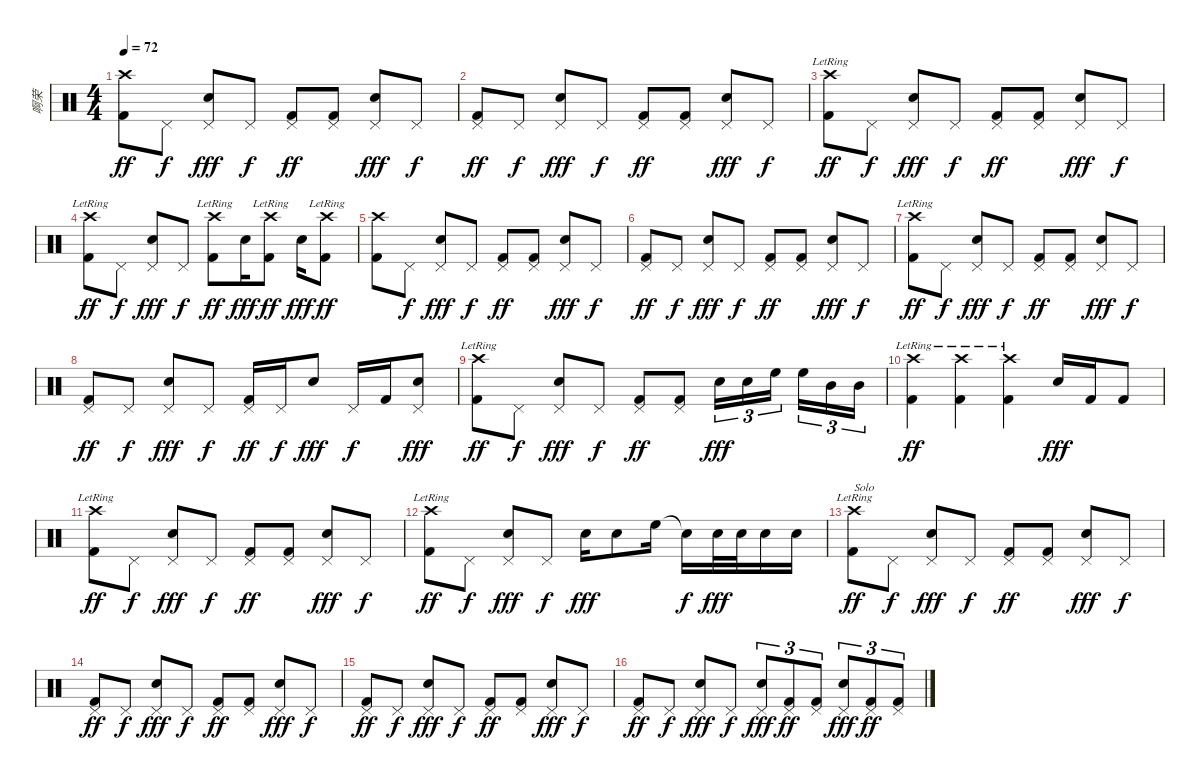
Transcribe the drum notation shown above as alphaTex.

\track ("啊荣" "啊荣") {instrument percussion}
\staff {score}
\articulation defaults
\ts (4 4)
\tempo 72
\clef neutral
\ks c
("Crash high (hit)" "Kick (hit) 2").8{dy ff} "Pedal Hi-Hat (hit)".8{dy f} ("Pedal Hi-Hat (hit)" "Electric Snare (hit)").8{dy fff} "Pedal Hi-Hat (hit)".8{dy f} ("Pedal Hi-Hat (hit)" "Kick (hit) 2").8{dy ff} ("Pedal Hi-Hat (hit)" "Kick (hit) 2").8 ("Pedal Hi-Hat (hit)" "Electric Snare (hit)").8{dy fff} "Pedal Hi-Hat (hit)".8{dy f} |
("Pedal Hi-Hat (hit)" "Kick (hit) 2").8{dy ff} "Pedal Hi-Hat (hit)".8{dy f} ("Pedal Hi-Hat (hit)" "Electric Snare (hit)").8{dy fff} "Pedal Hi-Hat (hit)".8{dy f} ("Pedal Hi-Hat (hit)" "Kick (hit) 2").8{dy ff} ("Pedal Hi-Hat (hit)" "Kick (hit) 2").8 ("Pedal Hi-Hat (hit)" "Electric Snare (hit)").8{dy fff} "Pedal Hi-Hat (hit)".8{dy f} |
("Crash high (hit)"{lr} "Kick (hit) 2").8{dy ff} "Pedal Hi-Hat (hit)".8{dy f} ("Pedal Hi-Hat (hit)" "Electric Snare (hit)").8{dy fff} "Pedal Hi-Hat (hit)".8{dy f} ("Pedal Hi-Hat (hit)" "Kick (hit) 2").8{dy ff} ("Pedal Hi-Hat (hit)" "Kick (hit) 2").8 ("Pedal Hi-Hat (hit)" "Electric Snare (hit)").8{dy fff} "Pedal Hi-Hat (hit)".8{dy f} |
("Crash high (hit)"{lr} "Kick (hit) 2").8{dy ff} "Pedal Hi-Hat (hit)".8{dy f} ("Pedal Hi-Hat (hit)" "Electric Snare (hit)").8{dy fff} "Pedal Hi-Hat (hit)".8{dy f} ("Crash high (hit)"{lr} "Kick (hit) 2").8{dy ff} "Electric Snare (hit)".16{dy fff} ("Crash high (hit)"{lr} "Kick (hit) 2").8{dy ff} "Electric Snare (hit)".16{dy fff} ("Crash high (hit)"{lr} "Kick (hit) 2").8{dy ff} |
("Crash high (hit)" "Kick (hit) 2").8 "Pedal Hi-Hat (hit)".8{dy f} ("Pedal Hi-Hat (hit)" "Electric Snare (hit)").8{dy fff} "Pedal Hi-Hat (hit)".8{dy f} ("Pedal Hi-Hat (hit)" "Kick (hit) 2").8{dy ff} ("Pedal Hi-Hat (hit)" "Kick (hit) 2").8 ("Pedal Hi-Hat (hit)" "Electric Snare (hit)").8{dy fff} "Pedal Hi-Hat (hit)".8{dy f} |
("Pedal Hi-Hat (hit)" "Kick (hit) 2").8{dy ff} "Pedal Hi-Hat (hit)".8{dy f} ("Pedal Hi-Hat (hit)" "Electric Snare (hit)").8{dy fff} "Pedal Hi-Hat (hit)".8{dy f} ("Pedal Hi-Hat (hit)" "Kick (hit) 2").8{dy ff} ("Pedal Hi-Hat (hit)" "Kick (hit) 2").8 ("Pedal Hi-Hat (hit)" "Electric Snare (hit)").8{dy fff} "Pedal Hi-Hat (hit)".8{dy f} |
("Crash high (hit)"{lr} "Kick (hit) 2").8{dy ff} "Pedal Hi-Hat (hit)".8{dy f} ("Pedal Hi-Hat (hit)" "Electric Snare (hit)").8{dy fff} "Pedal Hi-Hat (hit)".8{dy f} ("Pedal Hi-Hat (hit)" "Kick (hit) 2").8{dy ff} ("Pedal Hi-Hat (hit)" "Kick (hit) 2").8 ("Pedal Hi-Hat (hit)" "Electric Snare (hit)").8{dy fff} "Pedal Hi-Hat (hit)".8{dy f} |
("Pedal Hi-Hat (hit)" "Kick (hit) 2").8{dy ff} "Pedal Hi-Hat (hit)".8{dy f} ("Pedal Hi-Hat (hit)" "Electric Snare (hit)").8{dy fff} "Pedal Hi-Hat (hit)".8{dy f} ("Pedal Hi-Hat (hit)" "Kick (hit) 2").16{dy ff} "Pedal Hi-Hat (hit)".16{dy f} "Electric Snare (hit)".8{dy fff} "Pedal Hi-Hat (hit)".16{dy f} "Kick (hit) 2".16 ("Pedal Hi-Hat (hit)" "Electric Snare (hit)").8{dy fff} |
("Crash high (hit)"{lr} "Kick (hit) 2").8{dy ff} "Pedal Hi-Hat (hit)".8{dy f} ("Pedal Hi-Hat (hit)" "Electric Snare (hit)").8{dy fff} "Pedal Hi-Hat (hit)".8{dy f} ("Pedal Hi-Hat (hit)" "Kick (hit) 2").8{dy ff} ("Pedal Hi-Hat (hit)" "Kick (hit) 2").8 "Electric Snare (hit)".16{tu (3 2) dy fff} "Electric Snare (hit)".16{tu (3 2)} "High Floor Tom (hit)".16{tu (3 2)} "High Floor Tom (hit)".16{tu (3 2)} "Mid Tom (hit)".16{tu (3 2)} "Mid Tom (hit)".16{tu (3 2)} |
("Crash high (hit)"{lr} "Kick (hit) 2").4{dy ff} ("Crash high (hit)"{lr} "Kick (hit) 2").4 ("Crash high (hit)"{lr} "Kick (hit) 2").4 "Electric Snare (hit)".16{dy fff} "Kick (hit) 2".16 "Kick (hit) 2".8 |
("Crash high (hit)"{lr} "Kick (hit) 2").8{dy ff} "Pedal Hi-Hat (hit)".8{dy f} ("Pedal Hi-Hat (hit)" "Electric Snare (hit)").8{dy fff} "Pedal Hi-Hat (hit)".8{dy f} ("Pedal Hi-Hat (hit)" "Kick (hit) 2").8{dy ff} ("Pedal Hi-Hat (hit)" "Kick (hit) 2").8 ("Pedal Hi-Hat (hit)" "Electric Snare (hit)").8{dy fff} "Pedal Hi-Hat (hit)".8{dy f} |
("Crash high (hit)"{lr} "Kick (hit) 2").8{dy ff} "Pedal Hi-Hat (hit)".8{dy f} ("Pedal Hi-Hat (hit)" "Electric Snare (hit)").8{dy fff} "Pedal Hi-Hat (hit)".8{dy f} "Electric Snare (hit)".16{dy fff} "Electric Snare (hit)".8 "High Floor Tom (hit)".16 "Snare (hit)"{t}.16{dy f} "Electric Snare (hit)".32{dy fff} "Electric Snare (hit)".32 "Electric Snare (hit)".16 "Electric Snare (hit)".16 |
("Crash high (hit)"{lr} "Kick (hit) 2").8{txt "Solo" dy ff} "Pedal Hi-Hat (hit)".8{dy f} ("Pedal Hi-Hat (hit)" "Electric Snare (hit)").8{dy fff} "Pedal Hi-Hat (hit)".8{dy f} ("Pedal Hi-Hat (hit)" "Kick (hit) 2").8{dy ff} ("Pedal Hi-Hat (hit)" "Kick (hit) 2").8 ("Pedal Hi-Hat (hit)" "Electric Snare (hit)").8{dy fff} "Pedal Hi-Hat (hit)".8{dy f} |
("Pedal Hi-Hat (hit)" "Kick (hit) 2").8{dy ff} "Pedal Hi-Hat (hit)".8{dy f} ("Pedal Hi-Hat (hit)" "Electric Snare (hit)").8{dy fff} "Pedal Hi-Hat (hit)".8{dy f} ("Pedal Hi-Hat (hit)" "Kick (hit) 2").8{dy ff} ("Pedal Hi-Hat (hit)" "Kick (hit) 2").8 ("Pedal Hi-Hat (hit)" "Electric Snare (hit)").8{dy fff} "Pedal Hi-Hat (hit)".8{dy f} |
("Pedal Hi-Hat (hit)" "Kick (hit) 2").8{dy ff} "Pedal Hi-Hat (hit)".8{dy f} ("Pedal Hi-Hat (hit)" "Electric Snare (hit)").8{dy fff} "Pedal Hi-Hat (hit)".8{dy f} ("Pedal Hi-Hat (hit)" "Kick (hit) 2").8{dy ff} ("Pedal Hi-Hat (hit)" "Kick (hit) 2").8 ("Pedal Hi-Hat (hit)" "Electric Snare (hit)").8{dy fff} "Pedal Hi-Hat (hit)".8{dy f} |
("Pedal Hi-Hat (hit)" "Kick (hit) 2").8{dy ff} "Pedal Hi-Hat (hit)".8{dy f} ("Pedal Hi-Hat (hit)" "Electric Snare (hit)").8{dy fff} "Pedal Hi-Hat (hit)".8{dy f} ("Pedal Hi-Hat (hit)" "Electric Snare (hit)").8{tu (3 2) dy fff} ("Pedal Hi-Hat (hit)" "Kick (hit) 2").8{tu (3 2) dy ff} ("Pedal Hi-Hat (hit)" "Kick (hit) 2").8{tu (3 2)} ("Pedal Hi-Hat (hit)" "Electric Snare (hit)").8{tu (3 2) dy fff} ("Pedal Hi-Hat (hit)" "Kick (hit) 2").8{tu (3 2) dy ff} ("Pedal Hi-Hat (hit)" "Kick (hit) 2").8{tu (3 2)}
